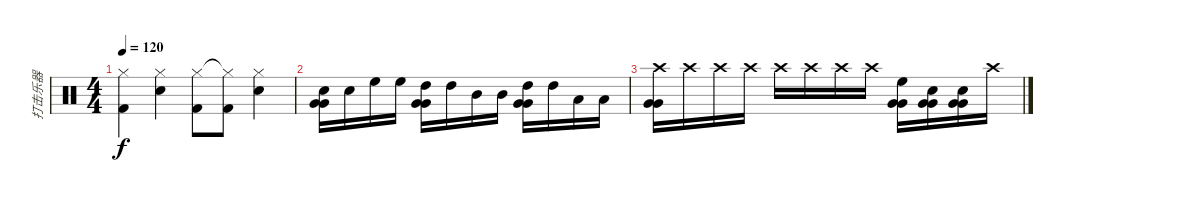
\track ("打击乐器" "打击乐器") {instrument percussion}
\staff {score}
\articulation defaults
\ts (4 4)
\tempo 120
\clef neutral
\ks c
("Hi-Hat (closed)" "Kick (hit) 2").4{dy f} ("Hi-Hat (closed)" "Snare (hit) 2").4 ("Hi-Hat (closed)" "Kick (hit) 2").8 ("Hi-Hat (closed)"{t} "Kick (hit) 2").8 ("Hi-Hat (closed)" "Snare (hit) 2").4 |
("Electric Snare (hit)" "Very Low Tom (hit)" "Very Low Tom (hit)").16 "Electric Snare (hit)".16 "High Floor Tom (hit)".16 "High Floor Tom (hit)".16 ("High Tom (hit)" "Very Low Tom (hit)" "Very Low Tom (hit)").16 "High Tom (hit)".16 "Mid Tom (hit)".16 "Mid Tom (hit)".16 ("High Tom (hit)" "Very Low Tom (hit)" "Very Low Tom (hit)").16 "High Tom (hit)".16 "Low Tom (hit)".16 "Low Tom (hit)".16 |
("Crash high (hit)" "Very Low Tom (hit)" "Very Low Tom (hit)").16 "Crash high (hit)".16 "Crash high (hit)".16 "Crash high (hit)".16 "Crash high (hit)".16 "Crash high (hit)".16 "Crash high (hit)".16 "Crash high (hit)".16 ("High Floor Tom (hit)" "Very Low Tom (hit)" "Very Low Tom (hit)").16 ("Electric Snare (hit)" "Very Low Tom (hit)" "Very Low Tom (hit)").16 ("Electric Snare (hit)" "Very Low Tom (hit)" "Very Low Tom (hit)").16 "Crash high (hit)".16
